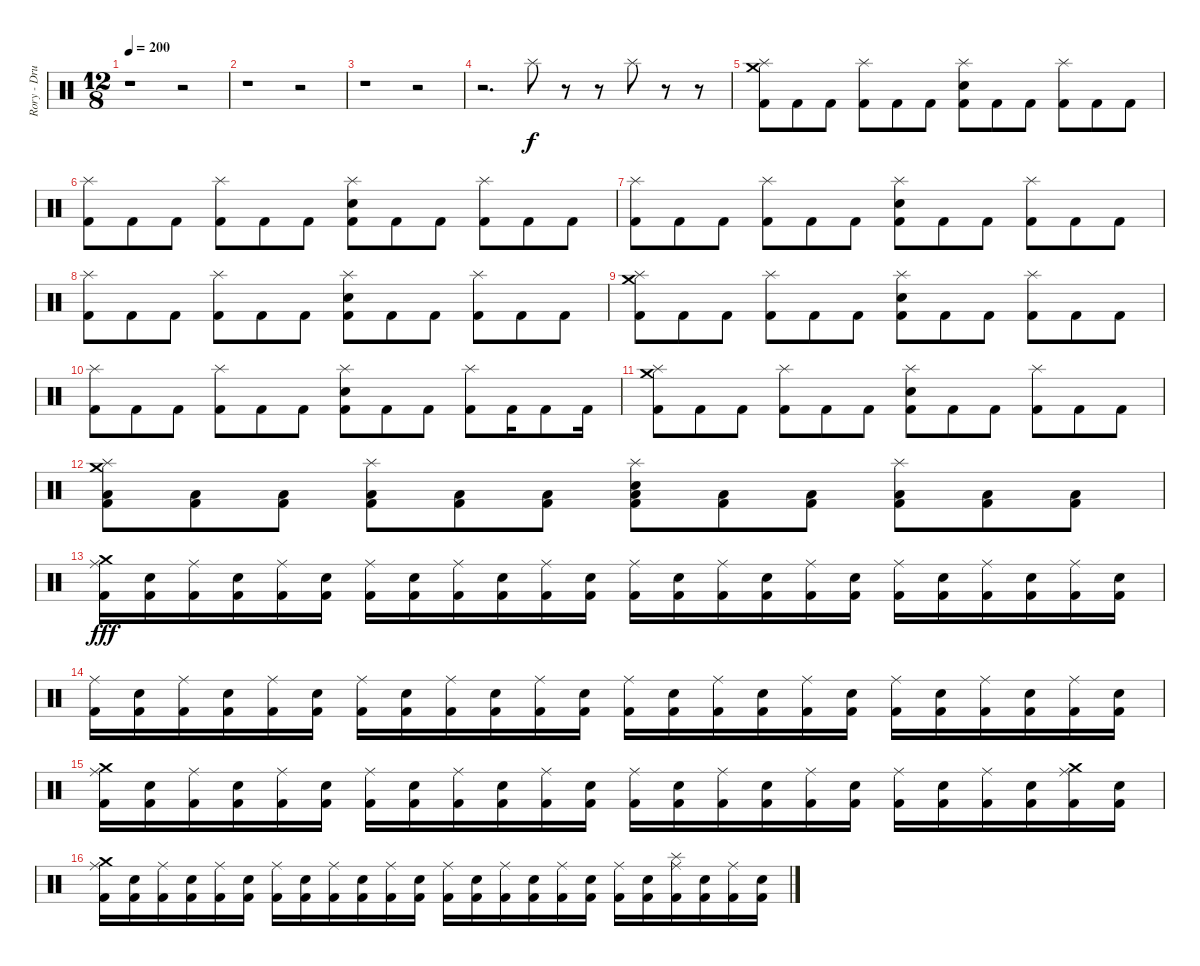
\track ("Rory - Drums" "Rory - Dru") {instrument percussion}
\staff {score}
\articulation defaults
\ts (12 8)
\tempo 200
\clef neutral
\ks c
r.1{dy fff} r.2 |
r.1 r.2 |
r.1 r.2 |
r.2{d} "Splash (hit)".8{dy f} r.8 r.8 "Splash (hit)".8 r.8 r.8 |
("Kick (hit) 2" "Crash medium (hit)" "Splash (hit)").8 "Kick (hit) 2".8 "Kick (hit) 2".8 ("Kick (hit) 2" "Splash (hit)").8 "Kick (hit) 2".8 "Kick (hit) 2".8 ("Kick (hit) 2" "Electric Snare (hit)" "Splash (hit)").8 "Kick (hit) 2".8 "Kick (hit) 2".8 ("Kick (hit) 2" "Splash (hit)").8 "Kick (hit) 2".8 "Kick (hit) 2".8 |
("Kick (hit) 2" "Splash (hit)").8 "Kick (hit) 2".8 "Kick (hit) 2".8 ("Kick (hit) 2" "Splash (hit)").8 "Kick (hit) 2".8 "Kick (hit) 2".8 ("Kick (hit) 2" "Electric Snare (hit)" "Splash (hit)").8 "Kick (hit) 2".8 "Kick (hit) 2".8 ("Kick (hit) 2" "Splash (hit)").8 "Kick (hit) 2".8 "Kick (hit) 2".8 |
("Kick (hit) 2" "Splash (hit)").8 "Kick (hit) 2".8 "Kick (hit) 2".8 ("Kick (hit) 2" "Splash (hit)").8 "Kick (hit) 2".8 "Kick (hit) 2".8 ("Kick (hit) 2" "Electric Snare (hit)" "Splash (hit)").8 "Kick (hit) 2".8 "Kick (hit) 2".8 ("Kick (hit) 2" "Splash (hit)").8 "Kick (hit) 2".8 "Kick (hit) 2".8 |
("Kick (hit) 2" "Splash (hit)").8 "Kick (hit) 2".8 "Kick (hit) 2".8 ("Kick (hit) 2" "Splash (hit)").8 "Kick (hit) 2".8 "Kick (hit) 2".8 ("Kick (hit) 2" "Electric Snare (hit)" "Splash (hit)").8 "Kick (hit) 2".8 "Kick (hit) 2".8 ("Kick (hit) 2" "Splash (hit)").8 "Kick (hit) 2".8 "Kick (hit) 2".8 |
("Kick (hit) 2" "Crash medium (hit)" "Splash (hit)").8 "Kick (hit) 2".8 "Kick (hit) 2".8 ("Kick (hit) 2" "Splash (hit)").8 "Kick (hit) 2".8 "Kick (hit) 2".8 ("Kick (hit) 2" "Electric Snare (hit)" "Splash (hit)").8 "Kick (hit) 2".8 "Kick (hit) 2".8 ("Kick (hit) 2" "Splash (hit)").8 "Kick (hit) 2".8 "Kick (hit) 2".8 |
("Kick (hit) 2" "Splash (hit)").8 "Kick (hit) 2".8 "Kick (hit) 2".8 ("Kick (hit) 2" "Splash (hit)").8 "Kick (hit) 2".8 "Kick (hit) 2".8 ("Kick (hit) 2" "Electric Snare (hit)" "Splash (hit)").8 "Kick (hit) 2".8 "Kick (hit) 2".8 ("Kick (hit) 2" "Splash (hit)").8 "Kick (hit) 2".16 "Kick (hit) 2".8 "Kick (hit) 2".16 |
("Kick (hit) 2" "Crash medium (hit)" "Splash (hit)").8 "Kick (hit) 2".8 "Kick (hit) 2".8 ("Kick (hit) 2" "Splash (hit)").8 "Kick (hit) 2".8 "Kick (hit) 2".8 ("Kick (hit) 2" "Electric Snare (hit)" "Splash (hit)").8 "Kick (hit) 2".8 "Kick (hit) 2".8 ("Kick (hit) 2" "Splash (hit)").8 "Kick (hit) 2".8 "Kick (hit) 2".8 |
("Kick (hit) 2" "Low Floor Tom (hit)" "Crash medium (hit)" "Splash (hit)").8 ("Kick (hit) 2" "Low Floor Tom (hit)").8 ("Kick (hit) 2" "Low Floor Tom (hit)").8 ("Kick (hit) 2" "Low Floor Tom (hit)" "Splash (hit)").8 ("Kick (hit) 2" "Low Floor Tom (hit)").8 ("Kick (hit) 2" "Low Floor Tom (hit)").8 ("Kick (hit) 2" "Low Floor Tom (hit)" "Electric Snare (hit)" "Splash (hit)").8 ("Kick (hit) 2" "Low Floor Tom (hit)").8 ("Kick (hit) 2" "Low Floor Tom (hit)").8 ("Kick (hit) 2" "Low Floor Tom (hit)" "Splash (hit)").8 ("Kick (hit) 2" "Low Floor Tom (hit)").8 ("Kick (hit) 2" "Low Floor Tom (hit)").8 |
("Kick (hit) 2" "Crash medium (hit)" "Ride (middle)").16{dy fff} ("Kick (hit) 2" "Electric Snare (hit)").16 ("Kick (hit) 2" "Ride (middle)").16 ("Kick (hit) 2" "Electric Snare (hit)").16 ("Kick (hit) 2" "Ride (middle)").16 ("Kick (hit) 2" "Electric Snare (hit)").16 ("Kick (hit) 2" "Ride (middle)").16 ("Kick (hit) 2" "Electric Snare (hit)").16 ("Kick (hit) 2" "Ride (middle)").16 ("Kick (hit) 2" "Electric Snare (hit)").16 ("Kick (hit) 2" "Ride (middle)").16 ("Kick (hit) 2" "Electric Snare (hit)").16 ("Kick (hit) 2" "Ride (middle)").16 ("Kick (hit) 2" "Electric Snare (hit)").16 ("Kick (hit) 2" "Ride (middle)").16 ("Kick (hit) 2" "Electric Snare (hit)").16 ("Kick (hit) 2" "Ride (middle)").16 ("Kick (hit) 2" "Electric Snare (hit)").16 ("Kick (hit) 2" "Ride (middle)").16 ("Kick (hit) 2" "Electric Snare (hit)").16 ("Kick (hit) 2" "Ride (middle)").16 ("Kick (hit) 2" "Electric Snare (hit)").16 ("Kick (hit) 2" "Ride (middle)").16 ("Kick (hit) 2" "Electric Snare (hit)").16 |
("Kick (hit) 2" "Ride (middle)").16 ("Kick (hit) 2" "Electric Snare (hit)").16 ("Kick (hit) 2" "Ride (middle)").16 ("Kick (hit) 2" "Electric Snare (hit)").16 ("Kick (hit) 2" "Ride (middle)").16 ("Kick (hit) 2" "Electric Snare (hit)").16 ("Kick (hit) 2" "Ride (middle)").16 ("Kick (hit) 2" "Electric Snare (hit)").16 ("Kick (hit) 2" "Ride (middle)").16 ("Kick (hit) 2" "Electric Snare (hit)").16 ("Kick (hit) 2" "Ride (middle)").16 ("Kick (hit) 2" "Electric Snare (hit)").16 ("Kick (hit) 2" "Ride (middle)").16 ("Kick (hit) 2" "Electric Snare (hit)").16 ("Kick (hit) 2" "Ride (middle)").16 ("Kick (hit) 2" "Electric Snare (hit)").16 ("Kick (hit) 2" "Ride (middle)").16 ("Kick (hit) 2" "Electric Snare (hit)").16 ("Kick (hit) 2" "Ride (middle)").16 ("Kick (hit) 2" "Electric Snare (hit)").16 ("Kick (hit) 2" "Ride (middle)").16 ("Kick (hit) 2" "Electric Snare (hit)").16 ("Kick (hit) 2" "Ride (middle)").16 ("Kick (hit) 2" "Electric Snare (hit)").16 |
("Kick (hit) 2" "Crash medium (hit)" "Ride (middle)").16 ("Kick (hit) 2" "Electric Snare (hit)").16 ("Kick (hit) 2" "Ride (middle)").16 ("Kick (hit) 2" "Electric Snare (hit)").16 ("Kick (hit) 2" "Ride (middle)").16 ("Kick (hit) 2" "Electric Snare (hit)").16 ("Kick (hit) 2" "Ride (middle)").16 ("Kick (hit) 2" "Electric Snare (hit)").16 ("Kick (hit) 2" "Ride (middle)").16 ("Kick (hit) 2" "Electric Snare (hit)").16 ("Kick (hit) 2" "Ride (middle)").16 ("Kick (hit) 2" "Electric Snare (hit)").16 ("Kick (hit) 2" "Ride (middle)").16 ("Kick (hit) 2" "Electric Snare (hit)").16 ("Kick (hit) 2" "Ride (middle)").16 ("Kick (hit) 2" "Electric Snare (hit)").16 ("Kick (hit) 2" "Ride (middle)").16 ("Kick (hit) 2" "Electric Snare (hit)").16 ("Kick (hit) 2" "Ride (middle)").16 ("Kick (hit) 2" "Electric Snare (hit)").16 ("Kick (hit) 2" "Ride (middle)").16 ("Kick (hit) 2" "Electric Snare (hit)").16 ("Kick (hit) 2" "Crash medium (hit)" "Ride (middle)").16 ("Kick (hit) 2" "Electric Snare (hit)").16 |
("Kick (hit) 2" "Crash medium (hit)" "Ride (middle)").16 ("Kick (hit) 2" "Electric Snare (hit)").16 ("Kick (hit) 2" "Ride (middle)").16 ("Kick (hit) 2" "Electric Snare (hit)").16 ("Kick (hit) 2" "Ride (middle)").16 ("Kick (hit) 2" "Electric Snare (hit)").16 ("Kick (hit) 2" "Ride (middle)").16 ("Kick (hit) 2" "Electric Snare (hit)").16 ("Kick (hit) 2" "Ride (middle)").16 ("Kick (hit) 2" "Electric Snare (hit)").16 ("Kick (hit) 2" "Ride (middle)").16 ("Kick (hit) 2" "Electric Snare (hit)").16 ("Kick (hit) 2" "Ride (middle)").16 ("Kick (hit) 2" "Electric Snare (hit)").16 ("Kick (hit) 2" "Ride (middle)").16 ("Kick (hit) 2" "Electric Snare (hit)").16 ("Kick (hit) 2" "Ride (middle)").16 ("Kick (hit) 2" "Electric Snare (hit)").16 ("Kick (hit) 2" "Ride (middle)").16 ("Kick (hit) 2" "Electric Snare (hit)").16 ("Kick (hit) 2" "Splash (hit)" "Ride (middle)").16 ("Kick (hit) 2" "Electric Snare (hit)").16 ("Kick (hit) 2" "Ride (middle)").16 ("Kick (hit) 2" "Electric Snare (hit)").16
